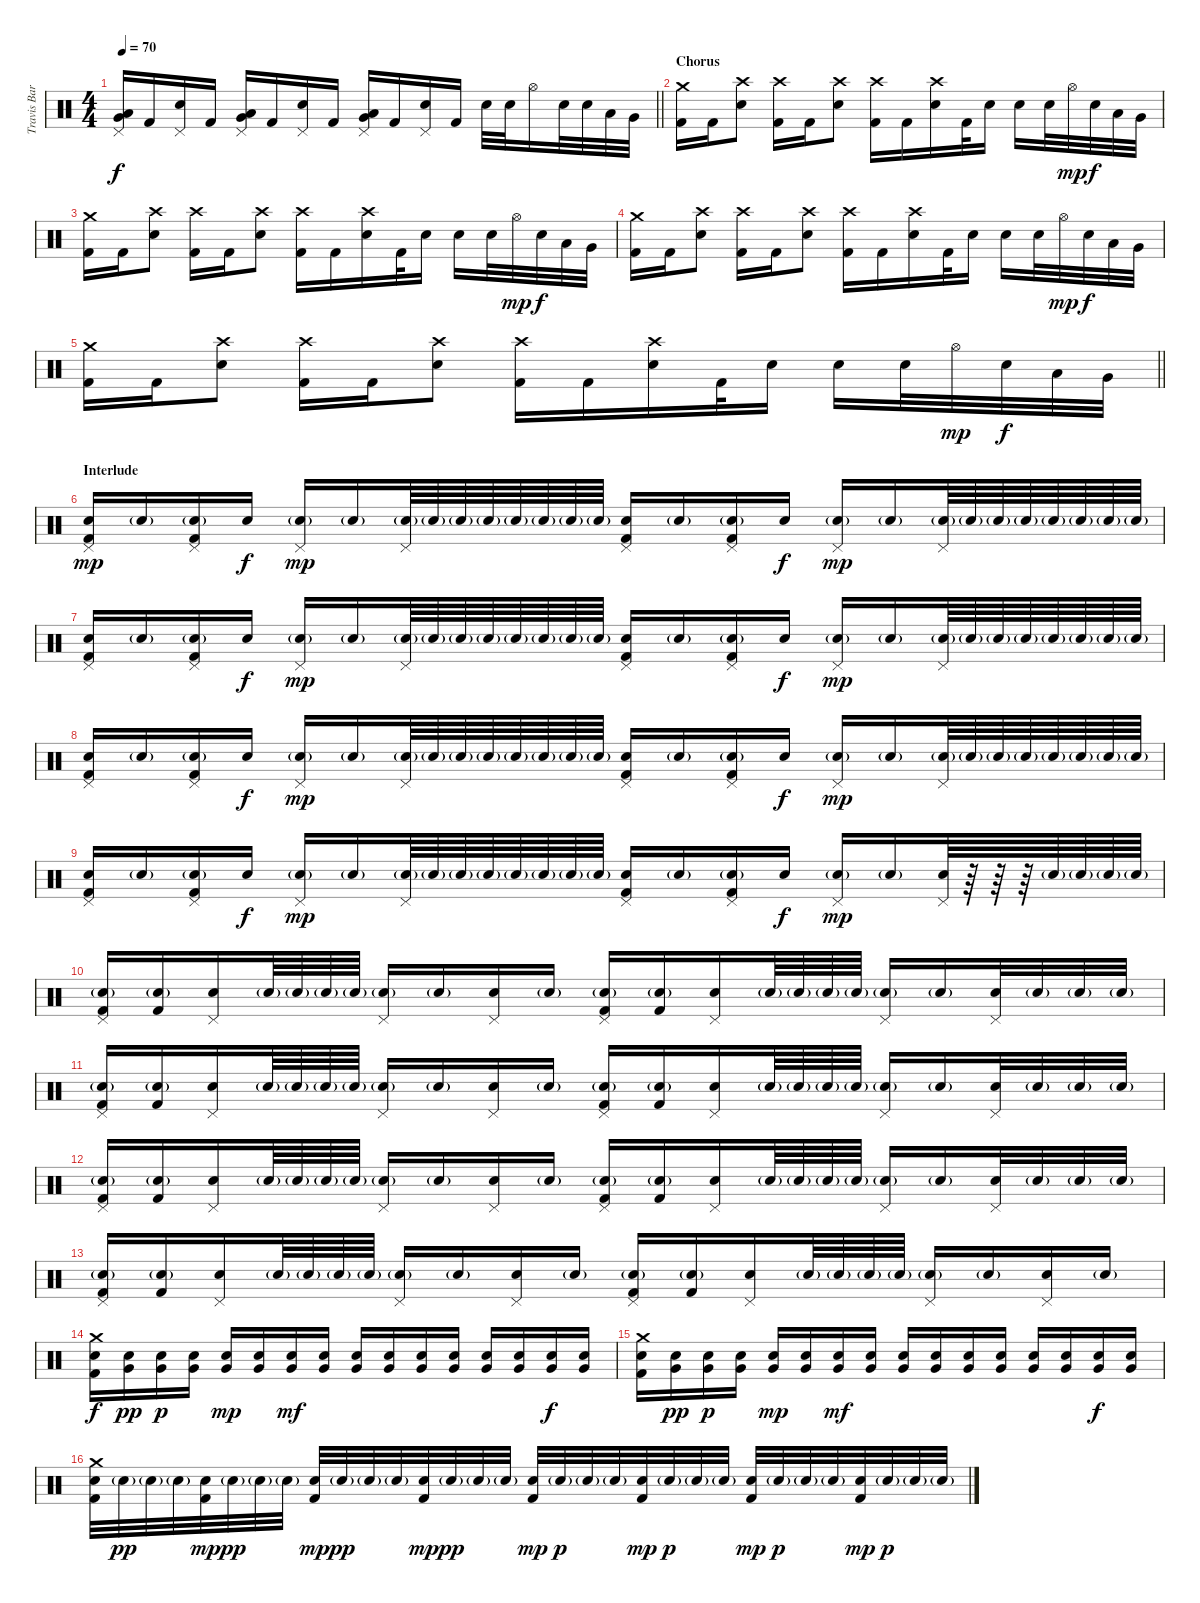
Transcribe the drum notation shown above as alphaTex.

\track ("Travis Barker" "Travis Bar") {instrument percussion}
\staff {score}
\articulation defaults
\ts (4 4)
\tempo 70
\clef neutral
\barLineRight lightlight
\ks c
("Pedal Hi-Hat (hit)" "Low Tom (hit)" "Very Low Tom (hit)").16{dy f} "Kick (hit) 2".16 ("Pedal Hi-Hat (hit)" "Electric Snare (hit)").16 "Kick (hit) 2".16 ("Pedal Hi-Hat (hit)" "Low Tom (hit)" "Very Low Tom (hit)").16 "Kick (hit) 2".16 ("Pedal Hi-Hat (hit)" "Electric Snare (hit)").16 "Kick (hit) 2".16 ("Pedal Hi-Hat (hit)" "Low Tom (hit)" "Very Low Tom (hit)").16 "Kick (hit) 2".16 ("Pedal Hi-Hat (hit)" "Electric Snare (hit)").16 "Kick (hit) 2".16 "Electric Snare (hit)".32 "Electric Snare (hit)".32 "Hi-Hat (open)".16 "Electric Snare (hit)".32 "Electric Snare (hit)".32 "Low Tom (hit)".32 "Very Low Tom (hit)".32 |
\section ("" "Chorus")
("Crash medium (hit)" "Kick (hit) 2").16 "Kick (hit) 2".16 ("Crash high (hit)" "Electric Snare (hit)").8 ("Crash high (hit)" "Kick (hit) 2").16 "Kick (hit) 2".16 ("Crash high (hit)" "Electric Snare (hit)").8 ("Crash high (hit)" "Kick (hit) 2").16 "Kick (hit) 2".16 ("Crash high (hit)" "Electric Snare (hit)").16 "Kick (hit) 2".32 "Electric Snare (hit)".16 "Electric Snare (hit)".16 "Electric Snare (hit)".32 "Hi-Hat (open)".32{dy mp} "Electric Snare (hit)".32{dy f} "Low Tom (hit)".32 "Very Low Tom (hit)".32 |
("Crash medium (hit)" "Kick (hit) 2").16 "Kick (hit) 2".16 ("Crash high (hit)" "Electric Snare (hit)").8 ("Crash high (hit)" "Kick (hit) 2").16 "Kick (hit) 2".16 ("Crash high (hit)" "Electric Snare (hit)").8 ("Crash high (hit)" "Kick (hit) 2").16 "Kick (hit) 2".16 ("Crash high (hit)" "Electric Snare (hit)").16 "Kick (hit) 2".32 "Electric Snare (hit)".16 "Electric Snare (hit)".16 "Electric Snare (hit)".32 "Hi-Hat (open)".32{dy mp} "Electric Snare (hit)".32{dy f} "Low Tom (hit)".32 "Very Low Tom (hit)".32 |
("Crash medium (hit)" "Kick (hit) 2").16 "Kick (hit) 2".16 ("Crash high (hit)" "Electric Snare (hit)").8 ("Crash high (hit)" "Kick (hit) 2").16 "Kick (hit) 2".16 ("Crash high (hit)" "Electric Snare (hit)").8 ("Crash high (hit)" "Kick (hit) 2").16 "Kick (hit) 2".16 ("Crash high (hit)" "Electric Snare (hit)").16 "Kick (hit) 2".32 "Electric Snare (hit)".16 "Electric Snare (hit)".16 "Electric Snare (hit)".32 "Hi-Hat (open)".32{dy mp} "Electric Snare (hit)".32{dy f} "Low Tom (hit)".32 "Very Low Tom (hit)".32 |
\barLineRight lightlight
("Crash medium (hit)" "Kick (hit) 2").16 "Kick (hit) 2".16 ("Crash high (hit)" "Electric Snare (hit)").8 ("Crash high (hit)" "Kick (hit) 2").16 "Kick (hit) 2".16 ("Crash high (hit)" "Electric Snare (hit)").8 ("Crash high (hit)" "Kick (hit) 2").16 "Kick (hit) 2".16 ("Crash high (hit)" "Electric Snare (hit)").16 "Kick (hit) 2".32 "Electric Snare (hit)".16 "Electric Snare (hit)".16 "Electric Snare (hit)".32 "Hi-Hat (open)".32{dy mp} "Electric Snare (hit)".32{dy f} "Low Tom (hit)".32 "Very Low Tom (hit)".32 |
\section ("" "Interlude")
("Pedal Hi-Hat (hit)" "Electric Snare (hit)" "Kick (hit) 2").16{dy mp} "Electric Snare (hit)"{g}.16 ("Pedal Hi-Hat (hit)" "Electric Snare (hit)"{g} "Kick (hit) 2").16 "Electric Snare (hit)".16{dy f} ("Pedal Hi-Hat (hit)" "Electric Snare (hit)"{g}).16{dy mp} "Electric Snare (hit)"{g}.16 ("Pedal Hi-Hat (hit)" "Electric Snare (hit)"{g}).64 "Electric Snare (hit)"{g}.64 "Electric Snare (hit)"{g}.64 "Electric Snare (hit)"{g}.64 "Electric Snare (hit)"{g}.64 "Electric Snare (hit)"{g}.64 "Electric Snare (hit)"{g}.64 "Electric Snare (hit)"{g}.64 ("Pedal Hi-Hat (hit)" "Electric Snare (hit)" "Kick (hit) 2").16 "Electric Snare (hit)"{g}.16 ("Pedal Hi-Hat (hit)" "Electric Snare (hit)"{g} "Kick (hit) 2").16 "Electric Snare (hit)".16{dy f} ("Pedal Hi-Hat (hit)" "Electric Snare (hit)"{g}).16{dy mp} "Electric Snare (hit)"{g}.16 ("Pedal Hi-Hat (hit)" "Electric Snare (hit)"{g}).64 "Electric Snare (hit)"{g}.64 "Electric Snare (hit)"{g}.64 "Electric Snare (hit)"{g}.64 "Electric Snare (hit)"{g}.64 "Electric Snare (hit)"{g}.64 "Electric Snare (hit)"{g}.64 "Electric Snare (hit)"{g}.64 |
("Pedal Hi-Hat (hit)" "Electric Snare (hit)" "Kick (hit) 2").16 "Electric Snare (hit)"{g}.16 ("Pedal Hi-Hat (hit)" "Electric Snare (hit)"{g} "Kick (hit) 2").16 "Electric Snare (hit)".16{dy f} ("Pedal Hi-Hat (hit)" "Electric Snare (hit)"{g}).16{dy mp} "Electric Snare (hit)"{g}.16 ("Pedal Hi-Hat (hit)" "Electric Snare (hit)"{g}).64 "Electric Snare (hit)"{g}.64 "Electric Snare (hit)"{g}.64 "Electric Snare (hit)"{g}.64 "Electric Snare (hit)"{g}.64 "Electric Snare (hit)"{g}.64 "Electric Snare (hit)"{g}.64 "Electric Snare (hit)"{g}.64 ("Pedal Hi-Hat (hit)" "Electric Snare (hit)" "Kick (hit) 2").16 "Electric Snare (hit)"{g}.16 ("Pedal Hi-Hat (hit)" "Electric Snare (hit)"{g} "Kick (hit) 2").16 "Electric Snare (hit)".16{dy f} ("Pedal Hi-Hat (hit)" "Electric Snare (hit)"{g}).16{dy mp} "Electric Snare (hit)"{g}.16 ("Pedal Hi-Hat (hit)" "Electric Snare (hit)"{g}).64 "Electric Snare (hit)"{g}.64 "Electric Snare (hit)"{g}.64 "Electric Snare (hit)"{g}.64 "Electric Snare (hit)"{g}.64 "Electric Snare (hit)"{g}.64 "Electric Snare (hit)"{g}.64 "Electric Snare (hit)"{g}.64 |
("Pedal Hi-Hat (hit)" "Electric Snare (hit)" "Kick (hit) 2").16 "Electric Snare (hit)"{g}.16 ("Pedal Hi-Hat (hit)" "Electric Snare (hit)"{g} "Kick (hit) 2").16 "Electric Snare (hit)".16{dy f} ("Pedal Hi-Hat (hit)" "Electric Snare (hit)"{g}).16{dy mp} "Electric Snare (hit)"{g}.16 ("Pedal Hi-Hat (hit)" "Electric Snare (hit)"{g}).64 "Electric Snare (hit)"{g}.64 "Electric Snare (hit)"{g}.64 "Electric Snare (hit)"{g}.64 "Electric Snare (hit)"{g}.64 "Electric Snare (hit)"{g}.64 "Electric Snare (hit)"{g}.64 "Electric Snare (hit)"{g}.64 ("Pedal Hi-Hat (hit)" "Electric Snare (hit)" "Kick (hit) 2").16 "Electric Snare (hit)"{g}.16 ("Pedal Hi-Hat (hit)" "Electric Snare (hit)"{g} "Kick (hit) 2").16 "Electric Snare (hit)".16{dy f} ("Pedal Hi-Hat (hit)" "Electric Snare (hit)"{g}).16{dy mp} "Electric Snare (hit)"{g}.16 ("Pedal Hi-Hat (hit)" "Electric Snare (hit)"{g}).64 "Electric Snare (hit)"{g}.64 "Electric Snare (hit)"{g}.64 "Electric Snare (hit)"{g}.64 "Electric Snare (hit)"{g}.64 "Electric Snare (hit)"{g}.64 "Electric Snare (hit)"{g}.64 "Electric Snare (hit)"{g}.64 |
("Pedal Hi-Hat (hit)" "Electric Snare (hit)" "Kick (hit) 2").16 "Electric Snare (hit)"{g}.16 ("Pedal Hi-Hat (hit)" "Electric Snare (hit)"{g} "Kick (hit) 2").16 "Electric Snare (hit)".16{dy f} ("Pedal Hi-Hat (hit)" "Electric Snare (hit)"{g}).16{dy mp} "Electric Snare (hit)"{g}.16 ("Pedal Hi-Hat (hit)" "Electric Snare (hit)"{g}).64 "Electric Snare (hit)"{g}.64 "Electric Snare (hit)"{g}.64 "Electric Snare (hit)"{g}.64 "Electric Snare (hit)"{g}.64 "Electric Snare (hit)"{g}.64 "Electric Snare (hit)"{g}.64 "Electric Snare (hit)"{g}.64 ("Pedal Hi-Hat (hit)" "Electric Snare (hit)" "Kick (hit) 2").16 "Electric Snare (hit)"{g}.16 ("Pedal Hi-Hat (hit)" "Electric Snare (hit)"{g} "Kick (hit) 2").16 "Electric Snare (hit)".16{dy f} ("Pedal Hi-Hat (hit)" "Electric Snare (hit)"{g}).16{dy mp} "Electric Snare (hit)"{g}.16 ("Pedal Hi-Hat (hit)" "Electric Snare (hit)").64 r.64 r.64 r.64 "Electric Snare (hit)"{g}.64 "Electric Snare (hit)"{g}.64 "Electric Snare (hit)"{g}.64 "Electric Snare (hit)"{g}.64 |
("Pedal Hi-Hat (hit)" "Electric Snare (hit)"{g} "Kick (hit) 2").16 ("Electric Snare (hit)"{g} "Kick (hit) 2").16 ("Pedal Hi-Hat (hit)" "Electric Snare (hit)").16 "Electric Snare (hit)"{g}.64 "Electric Snare (hit)"{g}.64 "Electric Snare (hit)"{g}.64 "Electric Snare (hit)"{g}.64 ("Pedal Hi-Hat (hit)" "Electric Snare (hit)"{g}).16 "Electric Snare (hit)"{g}.16 ("Pedal Hi-Hat (hit)" "Electric Snare (hit)").16 "Electric Snare (hit)"{g}.16 ("Pedal Hi-Hat (hit)" "Electric Snare (hit)"{g} "Kick (hit) 2").16 ("Electric Snare (hit)"{g} "Kick (hit) 2").16 ("Pedal Hi-Hat (hit)" "Electric Snare (hit)").16 "Electric Snare (hit)"{g}.64 "Electric Snare (hit)"{g}.64 "Electric Snare (hit)"{g}.64 "Electric Snare (hit)"{g}.64 ("Pedal Hi-Hat (hit)" "Electric Snare (hit)"{g}).16 "Electric Snare (hit)"{g}.16 ("Pedal Hi-Hat (hit)" "Electric Snare (hit)").32 "Electric Snare (hit)"{g}.32 "Electric Snare (hit)"{g}.32 "Electric Snare (hit)"{g}.32 |
("Pedal Hi-Hat (hit)" "Electric Snare (hit)"{g} "Kick (hit) 2").16 ("Electric Snare (hit)"{g} "Kick (hit) 2").16 ("Pedal Hi-Hat (hit)" "Electric Snare (hit)").16 "Electric Snare (hit)"{g}.64 "Electric Snare (hit)"{g}.64 "Electric Snare (hit)"{g}.64 "Electric Snare (hit)"{g}.64 ("Pedal Hi-Hat (hit)" "Electric Snare (hit)"{g}).16 "Electric Snare (hit)"{g}.16 ("Pedal Hi-Hat (hit)" "Electric Snare (hit)").16 "Electric Snare (hit)"{g}.16 ("Pedal Hi-Hat (hit)" "Electric Snare (hit)"{g} "Kick (hit) 2").16 ("Electric Snare (hit)"{g} "Kick (hit) 2").16 ("Pedal Hi-Hat (hit)" "Electric Snare (hit)").16 "Electric Snare (hit)"{g}.64 "Electric Snare (hit)"{g}.64 "Electric Snare (hit)"{g}.64 "Electric Snare (hit)"{g}.64 ("Pedal Hi-Hat (hit)" "Electric Snare (hit)"{g}).16 "Electric Snare (hit)"{g}.16 ("Pedal Hi-Hat (hit)" "Electric Snare (hit)").32 "Electric Snare (hit)"{g}.32 "Electric Snare (hit)"{g}.32 "Electric Snare (hit)"{g}.32 |
("Pedal Hi-Hat (hit)" "Electric Snare (hit)"{g} "Kick (hit) 2").16 ("Electric Snare (hit)"{g} "Kick (hit) 2").16 ("Pedal Hi-Hat (hit)" "Electric Snare (hit)").16 "Electric Snare (hit)"{g}.64 "Electric Snare (hit)"{g}.64 "Electric Snare (hit)"{g}.64 "Electric Snare (hit)"{g}.64 ("Pedal Hi-Hat (hit)" "Electric Snare (hit)"{g}).16 "Electric Snare (hit)"{g}.16 ("Pedal Hi-Hat (hit)" "Electric Snare (hit)").16 "Electric Snare (hit)"{g}.16 ("Pedal Hi-Hat (hit)" "Electric Snare (hit)"{g} "Kick (hit) 2").16 ("Electric Snare (hit)"{g} "Kick (hit) 2").16 ("Pedal Hi-Hat (hit)" "Electric Snare (hit)").16 "Electric Snare (hit)"{g}.64 "Electric Snare (hit)"{g}.64 "Electric Snare (hit)"{g}.64 "Electric Snare (hit)"{g}.64 ("Pedal Hi-Hat (hit)" "Electric Snare (hit)"{g}).16 "Electric Snare (hit)"{g}.16 ("Pedal Hi-Hat (hit)" "Electric Snare (hit)").32 "Electric Snare (hit)"{g}.32 "Electric Snare (hit)"{g}.32 "Electric Snare (hit)"{g}.32 |
("Pedal Hi-Hat (hit)" "Electric Snare (hit)"{g} "Kick (hit) 2").16 ("Electric Snare (hit)"{g} "Kick (hit) 2").16 ("Pedal Hi-Hat (hit)" "Electric Snare (hit)").16 "Electric Snare (hit)"{g}.64 "Electric Snare (hit)"{g}.64 "Electric Snare (hit)"{g}.64 "Electric Snare (hit)"{g}.64 ("Pedal Hi-Hat (hit)" "Electric Snare (hit)"{g}).16 "Electric Snare (hit)"{g}.16 ("Pedal Hi-Hat (hit)" "Electric Snare (hit)").16 "Electric Snare (hit)"{g}.16 ("Pedal Hi-Hat (hit)" "Electric Snare (hit)"{g} "Kick (hit) 2").16 ("Electric Snare (hit)"{g} "Kick (hit) 2").16 ("Pedal Hi-Hat (hit)" "Electric Snare (hit)").16 "Electric Snare (hit)"{g}.64 "Electric Snare (hit)"{g}.64 "Electric Snare (hit)"{g}.64 "Electric Snare (hit)"{g}.64 ("Pedal Hi-Hat (hit)" "Electric Snare (hit)"{g}).16 "Electric Snare (hit)"{g}.16 ("Pedal Hi-Hat (hit)" "Electric Snare (hit)").16 "Electric Snare (hit)"{g}.16 |
("Crash medium (hit)" "Electric Snare (hit)" "Kick (hit) 2").16{dy f} ("Electric Snare (hit)" "Very Low Tom (hit)").16{dy pp} ("Electric Snare (hit)" "Very Low Tom (hit)").16{dy p} ("Electric Snare (hit)" "Very Low Tom (hit)").16 ("Electric Snare (hit)" "Very Low Tom (hit)").16{dy mp} ("Electric Snare (hit)" "Very Low Tom (hit)").16 ("Electric Snare (hit)" "Very Low Tom (hit)").16{dy mf} ("Electric Snare (hit)" "Very Low Tom (hit)").16 ("Electric Snare (hit)" "Very Low Tom (hit)").16 ("Electric Snare (hit)" "Very Low Tom (hit)").16 ("Electric Snare (hit)" "Very Low Tom (hit)").16 ("Electric Snare (hit)" "Very Low Tom (hit)").16 ("Electric Snare (hit)" "Very Low Tom (hit)").16 ("Electric Snare (hit)" "Very Low Tom (hit)").16 ("Electric Snare (hit)" "Very Low Tom (hit)").16{dy f} ("Electric Snare (hit)" "Very Low Tom (hit)").16 |
("Crash medium (hit)" "Electric Snare (hit)" "Kick (hit) 2").16 ("Electric Snare (hit)" "Very Low Tom (hit)").16{dy pp} ("Electric Snare (hit)" "Very Low Tom (hit)").16{dy p} ("Electric Snare (hit)" "Very Low Tom (hit)").16 ("Electric Snare (hit)" "Very Low Tom (hit)").16{dy mp} ("Electric Snare (hit)" "Very Low Tom (hit)").16 ("Electric Snare (hit)" "Very Low Tom (hit)").16{dy mf} ("Electric Snare (hit)" "Very Low Tom (hit)").16 ("Electric Snare (hit)" "Very Low Tom (hit)").16 ("Electric Snare (hit)" "Very Low Tom (hit)").16 ("Electric Snare (hit)" "Very Low Tom (hit)").16 ("Electric Snare (hit)" "Very Low Tom (hit)").16 ("Electric Snare (hit)" "Very Low Tom (hit)").16 ("Electric Snare (hit)" "Very Low Tom (hit)").16 ("Electric Snare (hit)" "Very Low Tom (hit)").16{dy f} ("Electric Snare (hit)" "Very Low Tom (hit)").16 |
("Crash medium (hit)" "Electric Snare (hit)" "Kick (hit) 2").32 "Electric Snare (hit)"{g}.32{dy pp} "Electric Snare (hit)"{g}.32 "Electric Snare (hit)"{g}.32 ("Electric Snare (hit)" "Kick (hit) 2").32{dy mp} "Electric Snare (hit)"{g}.32{dy pp} "Electric Snare (hit)"{g}.32 "Electric Snare (hit)"{g}.32 ("Electric Snare (hit)" "Kick (hit) 2").32{dy mp} "Electric Snare (hit)"{g}.32{dy pp} "Electric Snare (hit)"{g}.32 "Electric Snare (hit)"{g}.32 ("Electric Snare (hit)" "Kick (hit) 2").32{dy mp} "Electric Snare (hit)"{g}.32{dy pp} "Electric Snare (hit)"{g}.32 "Electric Snare (hit)"{g}.32 ("Electric Snare (hit)" "Kick (hit) 2").32{dy mp} "Electric Snare (hit)"{g}.32{dy p} "Electric Snare (hit)"{g}.32 "Electric Snare (hit)"{g}.32 ("Electric Snare (hit)" "Kick (hit) 2").32{dy mp} "Electric Snare (hit)"{g}.32{dy p} "Electric Snare (hit)"{g}.32 "Electric Snare (hit)"{g}.32 ("Electric Snare (hit)" "Kick (hit) 2").32{dy mp} "Electric Snare (hit)"{g}.32{dy p} "Electric Snare (hit)"{g}.32 "Electric Snare (hit)"{g}.32 ("Electric Snare (hit)" "Kick (hit) 2").32{dy mp} "Electric Snare (hit)"{g}.32{dy p} "Electric Snare (hit)"{g}.32 "Electric Snare (hit)"{g}.32
